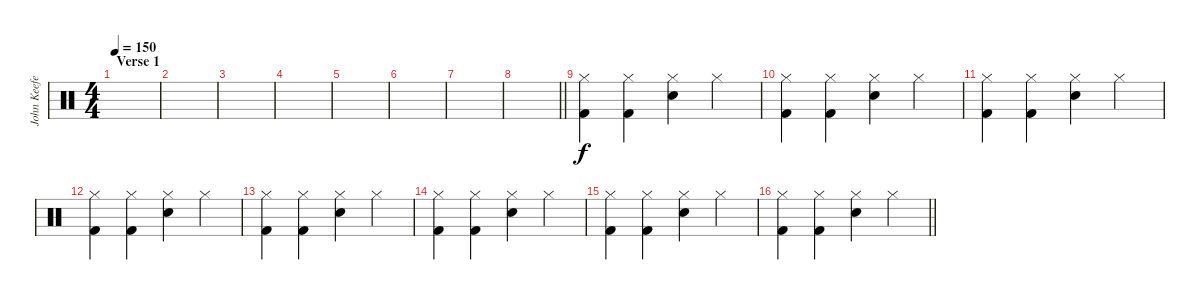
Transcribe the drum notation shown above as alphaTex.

\track ("John Keefe (Percussion)" "John Keefe") {instrument percussion}
\staff {score}
\articulation defaults
\ts (4 4)
\section ("" "Verse 1")
\tempo 150
\clef neutral
\ks c
|
|
|
|
|
|
|
\barLineRight lightlight
|
("Hi-Hat (closed)" "Kick (hit) 2").4 ("Hi-Hat (closed)" "Kick (hit) 2").4 ("Hi-Hat (closed)" "Snare (hit) 2").4 "Hi-Hat (closed)".4 |
("Hi-Hat (closed)" "Kick (hit) 2").4 ("Hi-Hat (closed)" "Kick (hit) 2").4 ("Hi-Hat (closed)" "Snare (hit) 2").4 "Hi-Hat (closed)".4 |
("Hi-Hat (closed)" "Kick (hit) 2").4 ("Hi-Hat (closed)" "Kick (hit) 2").4 ("Hi-Hat (closed)" "Snare (hit) 2").4 "Hi-Hat (closed)".4 |
("Hi-Hat (closed)" "Kick (hit) 2").4 ("Hi-Hat (closed)" "Kick (hit) 2").4 ("Hi-Hat (closed)" "Snare (hit) 2").4 "Hi-Hat (closed)".4 |
("Hi-Hat (closed)" "Kick (hit) 2").4 ("Hi-Hat (closed)" "Kick (hit) 2").4 ("Hi-Hat (closed)" "Snare (hit) 2").4 "Hi-Hat (closed)".4 |
("Hi-Hat (closed)" "Kick (hit) 2").4 ("Hi-Hat (closed)" "Kick (hit) 2").4 ("Hi-Hat (closed)" "Snare (hit) 2").4 "Hi-Hat (closed)".4 |
("Hi-Hat (closed)" "Kick (hit) 2").4 ("Hi-Hat (closed)" "Kick (hit) 2").4 ("Hi-Hat (closed)" "Snare (hit) 2").4 "Hi-Hat (closed)".4 |
\barLineRight lightlight
("Hi-Hat (closed)" "Kick (hit) 2").4 ("Hi-Hat (closed)" "Kick (hit) 2").4 ("Hi-Hat (closed)" "Snare (hit) 2").4 "Hi-Hat (closed)".4
